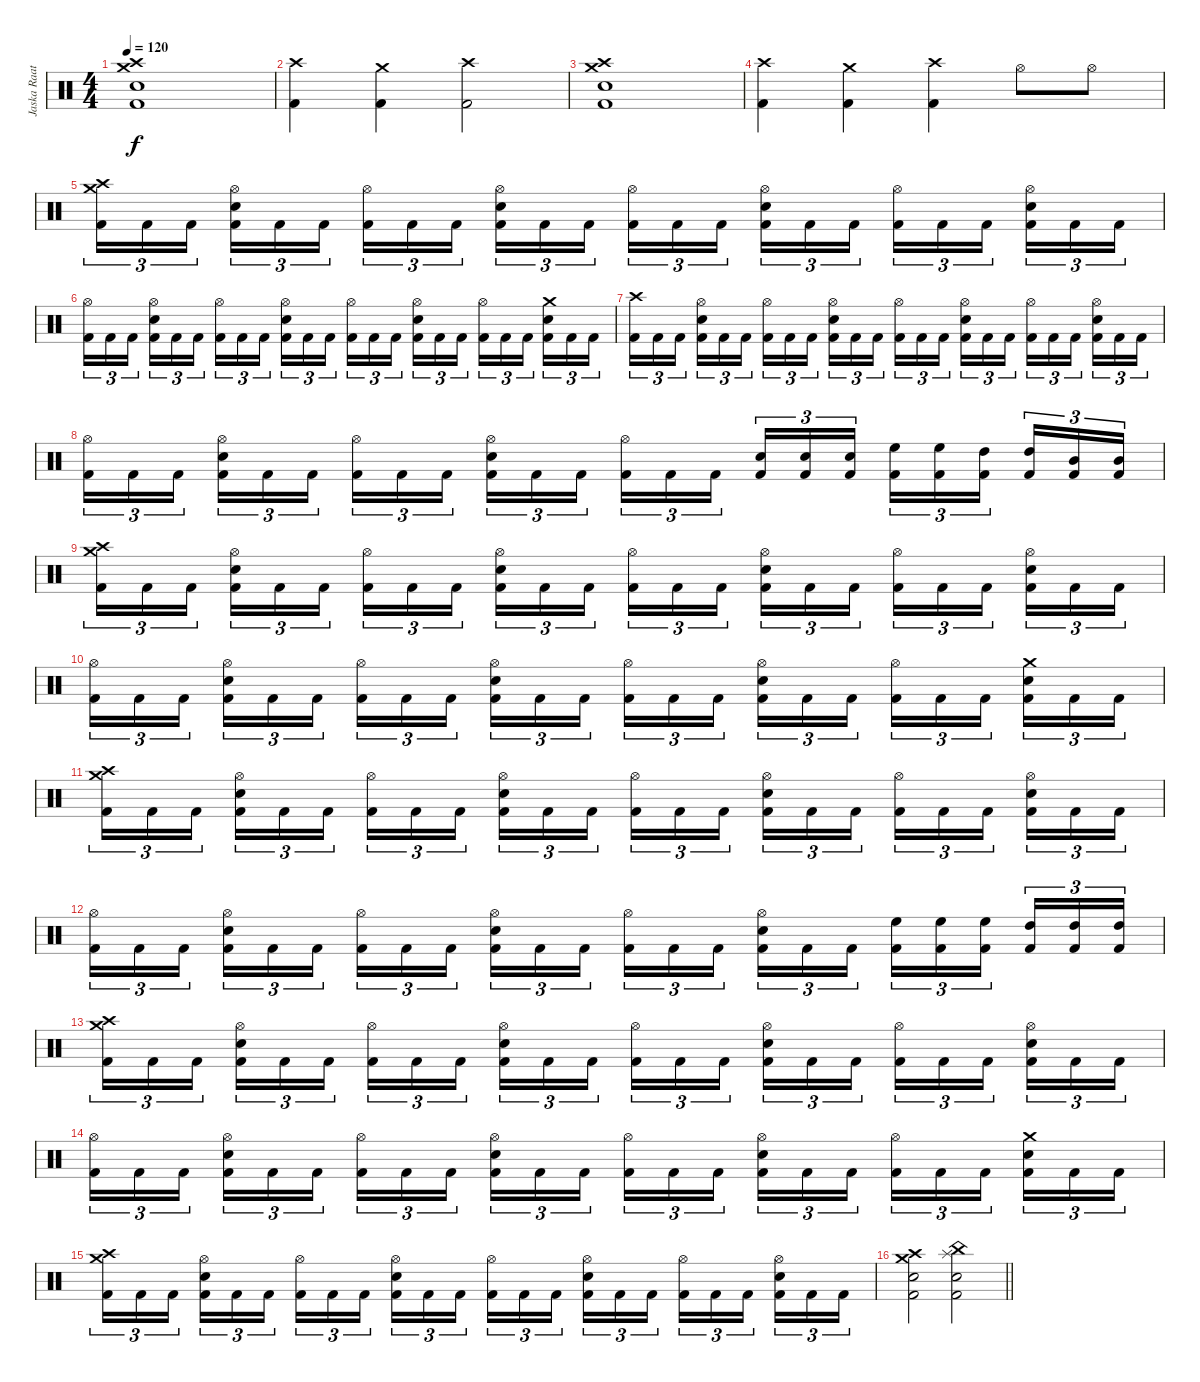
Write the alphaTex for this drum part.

\track ("Jaska Raatikainen" "Jaska Raat") {instrument percussion}
\staff {score}
\articulation defaults
\ts (4 4)
\tempo 120
\clef neutral
\ks c
("Crash high (hit)" "Crash medium (hit)" "Electric Snare (hit)" "Kick (hit) 2").1{dy f} |
("Crash high (hit)" "Kick (hit) 2").4 ("Crash medium (hit)" "Kick (hit) 2").4 ("Crash high (hit)" "Kick (hit) 2").2 |
("Crash high (hit)" "Crash medium (hit)" "Electric Snare (hit)" "Kick (hit) 2").1 |
("Crash high (hit)" "Kick (hit) 2").4 ("Crash medium (hit)" "Kick (hit) 2").4 ("Crash high (hit)" "Kick (hit) 2").4 "Hi-Hat (open)".8 "Hi-Hat (open)".8 |
("Crash high (hit)" "Crash medium (hit)" "Kick (hit) 2").16{tu (3 2)} "Kick (hit) 2".16{tu (3 2)} "Kick (hit) 2".16{tu (3 2)} ("Hi-Hat (open)" "Electric Snare (hit)" "Kick (hit) 2").16{tu (3 2)} "Kick (hit) 2".16{tu (3 2)} "Kick (hit) 2".16{tu (3 2)} ("Hi-Hat (open)" "Kick (hit) 2").16{tu (3 2)} "Kick (hit) 2".16{tu (3 2)} "Kick (hit) 2".16{tu (3 2)} ("Hi-Hat (open)" "Electric Snare (hit)" "Kick (hit) 2").16{tu (3 2)} "Kick (hit) 2".16{tu (3 2)} "Kick (hit) 2".16{tu (3 2)} ("Hi-Hat (open)" "Kick (hit) 2").16{tu (3 2)} "Kick (hit) 2".16{tu (3 2)} "Kick (hit) 2".16{tu (3 2)} ("Hi-Hat (open)" "Electric Snare (hit)" "Kick (hit) 2").16{tu (3 2)} "Kick (hit) 2".16{tu (3 2)} "Kick (hit) 2".16{tu (3 2)} ("Hi-Hat (open)" "Kick (hit) 2").16{tu (3 2)} "Kick (hit) 2".16{tu (3 2)} "Kick (hit) 2".16{tu (3 2)} ("Hi-Hat (open)" "Electric Snare (hit)" "Kick (hit) 2").16{tu (3 2)} "Kick (hit) 2".16{tu (3 2)} "Kick (hit) 2".16{tu (3 2)} |
("Hi-Hat (open)" "Kick (hit) 2").16{tu (3 2)} "Kick (hit) 2".16{tu (3 2)} "Kick (hit) 2".16{tu (3 2)} ("Hi-Hat (open)" "Electric Snare (hit)" "Kick (hit) 2").16{tu (3 2)} "Kick (hit) 2".16{tu (3 2)} "Kick (hit) 2".16{tu (3 2)} ("Hi-Hat (open)" "Kick (hit) 2").16{tu (3 2)} "Kick (hit) 2".16{tu (3 2)} "Kick (hit) 2".16{tu (3 2)} ("Hi-Hat (open)" "Electric Snare (hit)" "Kick (hit) 2").16{tu (3 2)} "Kick (hit) 2".16{tu (3 2)} "Kick (hit) 2".16{tu (3 2)} ("Hi-Hat (open)" "Kick (hit) 2").16{tu (3 2)} "Kick (hit) 2".16{tu (3 2)} "Kick (hit) 2".16{tu (3 2)} ("Hi-Hat (open)" "Electric Snare (hit)" "Kick (hit) 2").16{tu (3 2)} "Kick (hit) 2".16{tu (3 2)} "Kick (hit) 2".16{tu (3 2)} ("Hi-Hat (open)" "Kick (hit) 2").16{tu (3 2)} "Kick (hit) 2".16{tu (3 2)} "Kick (hit) 2".16{tu (3 2)} ("Crash medium (hit)" "Electric Snare (hit)" "Kick (hit) 2").16{tu (3 2)} "Kick (hit) 2".16{tu (3 2)} "Kick (hit) 2".16{tu (3 2)} |
("Crash high (hit)" "Kick (hit) 2").16{tu (3 2)} "Kick (hit) 2".16{tu (3 2)} "Kick (hit) 2".16{tu (3 2)} ("Hi-Hat (open)" "Electric Snare (hit)" "Kick (hit) 2").16{tu (3 2)} "Kick (hit) 2".16{tu (3 2)} "Kick (hit) 2".16{tu (3 2)} ("Hi-Hat (open)" "Kick (hit) 2").16{tu (3 2)} "Kick (hit) 2".16{tu (3 2)} "Kick (hit) 2".16{tu (3 2)} ("Hi-Hat (open)" "Electric Snare (hit)" "Kick (hit) 2").16{tu (3 2)} "Kick (hit) 2".16{tu (3 2)} "Kick (hit) 2".16{tu (3 2)} ("Hi-Hat (open)" "Kick (hit) 2").16{tu (3 2)} "Kick (hit) 2".16{tu (3 2)} "Kick (hit) 2".16{tu (3 2)} ("Hi-Hat (open)" "Electric Snare (hit)" "Kick (hit) 2").16{tu (3 2)} "Kick (hit) 2".16{tu (3 2)} "Kick (hit) 2".16{tu (3 2)} ("Hi-Hat (open)" "Kick (hit) 2").16{tu (3 2)} "Kick (hit) 2".16{tu (3 2)} "Kick (hit) 2".16{tu (3 2)} ("Hi-Hat (open)" "Electric Snare (hit)" "Kick (hit) 2").16{tu (3 2)} "Kick (hit) 2".16{tu (3 2)} "Kick (hit) 2".16{tu (3 2)} |
("Hi-Hat (open)" "Kick (hit) 2").16{tu (3 2)} "Kick (hit) 2".16{tu (3 2)} "Kick (hit) 2".16{tu (3 2)} ("Hi-Hat (open)" "Electric Snare (hit)" "Kick (hit) 2").16{tu (3 2)} "Kick (hit) 2".16{tu (3 2)} "Kick (hit) 2".16{tu (3 2)} ("Hi-Hat (open)" "Kick (hit) 2").16{tu (3 2)} "Kick (hit) 2".16{tu (3 2)} "Kick (hit) 2".16{tu (3 2)} ("Hi-Hat (open)" "Electric Snare (hit)" "Kick (hit) 2").16{tu (3 2)} "Kick (hit) 2".16{tu (3 2)} "Kick (hit) 2".16{tu (3 2)} ("Hi-Hat (open)" "Kick (hit) 2").16{tu (3 2)} "Kick (hit) 2".16{tu (3 2)} "Kick (hit) 2".16{tu (3 2)} ("Electric Snare (hit)" "Kick (hit) 2").16{tu (3 2)} ("Electric Snare (hit)" "Kick (hit) 2").16{tu (3 2)} ("Electric Snare (hit)" "Kick (hit) 2").16{tu (3 2)} ("High Floor Tom (hit)" "Kick (hit) 2").16{tu (3 2)} ("High Floor Tom (hit)" "Kick (hit) 2").16{tu (3 2)} ("High Tom (hit)" "Kick (hit) 2").16{tu (3 2)} ("High Tom (hit)" "Kick (hit) 2").16{tu (3 2)} ("Mid Tom (hit)" "Kick (hit) 2").16{tu (3 2)} ("Mid Tom (hit)" "Kick (hit) 2").16{tu (3 2)} |
("Crash high (hit)" "Crash medium (hit)" "Kick (hit) 2").16{tu (3 2)} "Kick (hit) 2".16{tu (3 2)} "Kick (hit) 2".16{tu (3 2)} ("Hi-Hat (open)" "Electric Snare (hit)" "Kick (hit) 2").16{tu (3 2)} "Kick (hit) 2".16{tu (3 2)} "Kick (hit) 2".16{tu (3 2)} ("Hi-Hat (open)" "Kick (hit) 2").16{tu (3 2)} "Kick (hit) 2".16{tu (3 2)} "Kick (hit) 2".16{tu (3 2)} ("Hi-Hat (open)" "Electric Snare (hit)" "Kick (hit) 2").16{tu (3 2)} "Kick (hit) 2".16{tu (3 2)} "Kick (hit) 2".16{tu (3 2)} ("Hi-Hat (open)" "Kick (hit) 2").16{tu (3 2)} "Kick (hit) 2".16{tu (3 2)} "Kick (hit) 2".16{tu (3 2)} ("Hi-Hat (open)" "Electric Snare (hit)" "Kick (hit) 2").16{tu (3 2)} "Kick (hit) 2".16{tu (3 2)} "Kick (hit) 2".16{tu (3 2)} ("Hi-Hat (open)" "Kick (hit) 2").16{tu (3 2)} "Kick (hit) 2".16{tu (3 2)} "Kick (hit) 2".16{tu (3 2)} ("Hi-Hat (open)" "Electric Snare (hit)" "Kick (hit) 2").16{tu (3 2)} "Kick (hit) 2".16{tu (3 2)} "Kick (hit) 2".16{tu (3 2)} |
("Hi-Hat (open)" "Kick (hit) 2").16{tu (3 2)} "Kick (hit) 2".16{tu (3 2)} "Kick (hit) 2".16{tu (3 2)} ("Hi-Hat (open)" "Electric Snare (hit)" "Kick (hit) 2").16{tu (3 2)} "Kick (hit) 2".16{tu (3 2)} "Kick (hit) 2".16{tu (3 2)} ("Hi-Hat (open)" "Kick (hit) 2").16{tu (3 2)} "Kick (hit) 2".16{tu (3 2)} "Kick (hit) 2".16{tu (3 2)} ("Hi-Hat (open)" "Electric Snare (hit)" "Kick (hit) 2").16{tu (3 2)} "Kick (hit) 2".16{tu (3 2)} "Kick (hit) 2".16{tu (3 2)} ("Hi-Hat (open)" "Kick (hit) 2").16{tu (3 2)} "Kick (hit) 2".16{tu (3 2)} "Kick (hit) 2".16{tu (3 2)} ("Hi-Hat (open)" "Electric Snare (hit)" "Kick (hit) 2").16{tu (3 2)} "Kick (hit) 2".16{tu (3 2)} "Kick (hit) 2".16{tu (3 2)} ("Hi-Hat (open)" "Kick (hit) 2").16{tu (3 2)} "Kick (hit) 2".16{tu (3 2)} "Kick (hit) 2".16{tu (3 2)} ("Crash medium (hit)" "Electric Snare (hit)" "Kick (hit) 2").16{tu (3 2)} "Kick (hit) 2".16{tu (3 2)} "Kick (hit) 2".16{tu (3 2)} |
("Crash high (hit)" "Crash medium (hit)" "Kick (hit) 2").16{tu (3 2)} "Kick (hit) 2".16{tu (3 2)} "Kick (hit) 2".16{tu (3 2)} ("Hi-Hat (open)" "Electric Snare (hit)" "Kick (hit) 2").16{tu (3 2)} "Kick (hit) 2".16{tu (3 2)} "Kick (hit) 2".16{tu (3 2)} ("Hi-Hat (open)" "Kick (hit) 2").16{tu (3 2)} "Kick (hit) 2".16{tu (3 2)} "Kick (hit) 2".16{tu (3 2)} ("Hi-Hat (open)" "Electric Snare (hit)" "Kick (hit) 2").16{tu (3 2)} "Kick (hit) 2".16{tu (3 2)} "Kick (hit) 2".16{tu (3 2)} ("Hi-Hat (open)" "Kick (hit) 2").16{tu (3 2)} "Kick (hit) 2".16{tu (3 2)} "Kick (hit) 2".16{tu (3 2)} ("Hi-Hat (open)" "Electric Snare (hit)" "Kick (hit) 2").16{tu (3 2)} "Kick (hit) 2".16{tu (3 2)} "Kick (hit) 2".16{tu (3 2)} ("Hi-Hat (open)" "Kick (hit) 2").16{tu (3 2)} "Kick (hit) 2".16{tu (3 2)} "Kick (hit) 2".16{tu (3 2)} ("Hi-Hat (open)" "Electric Snare (hit)" "Kick (hit) 2").16{tu (3 2)} "Kick (hit) 2".16{tu (3 2)} "Kick (hit) 2".16{tu (3 2)} |
("Hi-Hat (open)" "Kick (hit) 2").16{tu (3 2)} "Kick (hit) 2".16{tu (3 2)} "Kick (hit) 2".16{tu (3 2)} ("Hi-Hat (open)" "Electric Snare (hit)" "Kick (hit) 2").16{tu (3 2)} "Kick (hit) 2".16{tu (3 2)} "Kick (hit) 2".16{tu (3 2)} ("Hi-Hat (open)" "Kick (hit) 2").16{tu (3 2)} "Kick (hit) 2".16{tu (3 2)} "Kick (hit) 2".16{tu (3 2)} ("Hi-Hat (open)" "Electric Snare (hit)" "Kick (hit) 2").16{tu (3 2)} "Kick (hit) 2".16{tu (3 2)} "Kick (hit) 2".16{tu (3 2)} ("Hi-Hat (open)" "Kick (hit) 2").16{tu (3 2)} "Kick (hit) 2".16{tu (3 2)} "Kick (hit) 2".16{tu (3 2)} ("Hi-Hat (open)" "Electric Snare (hit)" "Kick (hit) 2").16{tu (3 2)} "Kick (hit) 2".16{tu (3 2)} "Kick (hit) 2".16{tu (3 2)} ("High Floor Tom (hit)" "Kick (hit) 2").16{tu (3 2)} ("High Floor Tom (hit)" "Kick (hit) 2").16{tu (3 2)} ("High Floor Tom (hit)" "Kick (hit) 2").16{tu (3 2)} ("High Tom (hit)" "Kick (hit) 2").16{tu (3 2)} ("High Tom (hit)" "Kick (hit) 2").16{tu (3 2)} ("High Tom (hit)" "Kick (hit) 2").16{tu (3 2)} |
("Crash high (hit)" "Crash medium (hit)" "Kick (hit) 2").16{tu (3 2)} "Kick (hit) 2".16{tu (3 2)} "Kick (hit) 2".16{tu (3 2)} ("Hi-Hat (open)" "Electric Snare (hit)" "Kick (hit) 2").16{tu (3 2)} "Kick (hit) 2".16{tu (3 2)} "Kick (hit) 2".16{tu (3 2)} ("Hi-Hat (open)" "Kick (hit) 2").16{tu (3 2)} "Kick (hit) 2".16{tu (3 2)} "Kick (hit) 2".16{tu (3 2)} ("Hi-Hat (open)" "Electric Snare (hit)" "Kick (hit) 2").16{tu (3 2)} "Kick (hit) 2".16{tu (3 2)} "Kick (hit) 2".16{tu (3 2)} ("Hi-Hat (open)" "Kick (hit) 2").16{tu (3 2)} "Kick (hit) 2".16{tu (3 2)} "Kick (hit) 2".16{tu (3 2)} ("Hi-Hat (open)" "Electric Snare (hit)" "Kick (hit) 2").16{tu (3 2)} "Kick (hit) 2".16{tu (3 2)} "Kick (hit) 2".16{tu (3 2)} ("Hi-Hat (open)" "Kick (hit) 2").16{tu (3 2)} "Kick (hit) 2".16{tu (3 2)} "Kick (hit) 2".16{tu (3 2)} ("Hi-Hat (open)" "Electric Snare (hit)" "Kick (hit) 2").16{tu (3 2)} "Kick (hit) 2".16{tu (3 2)} "Kick (hit) 2".16{tu (3 2)} |
("Hi-Hat (open)" "Kick (hit) 2").16{tu (3 2)} "Kick (hit) 2".16{tu (3 2)} "Kick (hit) 2".16{tu (3 2)} ("Hi-Hat (open)" "Electric Snare (hit)" "Kick (hit) 2").16{tu (3 2)} "Kick (hit) 2".16{tu (3 2)} "Kick (hit) 2".16{tu (3 2)} ("Hi-Hat (open)" "Kick (hit) 2").16{tu (3 2)} "Kick (hit) 2".16{tu (3 2)} "Kick (hit) 2".16{tu (3 2)} ("Hi-Hat (open)" "Electric Snare (hit)" "Kick (hit) 2").16{tu (3 2)} "Kick (hit) 2".16{tu (3 2)} "Kick (hit) 2".16{tu (3 2)} ("Hi-Hat (open)" "Kick (hit) 2").16{tu (3 2)} "Kick (hit) 2".16{tu (3 2)} "Kick (hit) 2".16{tu (3 2)} ("Hi-Hat (open)" "Electric Snare (hit)" "Kick (hit) 2").16{tu (3 2)} "Kick (hit) 2".16{tu (3 2)} "Kick (hit) 2".16{tu (3 2)} ("Hi-Hat (open)" "Kick (hit) 2").16{tu (3 2)} "Kick (hit) 2".16{tu (3 2)} "Kick (hit) 2".16{tu (3 2)} ("Crash medium (hit)" "Electric Snare (hit)" "Kick (hit) 2").16{tu (3 2)} "Kick (hit) 2".16{tu (3 2)} "Kick (hit) 2".16{tu (3 2)} |
("Crash high (hit)" "Crash medium (hit)" "Kick (hit) 2").16{tu (3 2)} "Kick (hit) 2".16{tu (3 2)} "Kick (hit) 2".16{tu (3 2)} ("Hi-Hat (open)" "Electric Snare (hit)" "Kick (hit) 2").16{tu (3 2)} "Kick (hit) 2".16{tu (3 2)} "Kick (hit) 2".16{tu (3 2)} ("Hi-Hat (open)" "Kick (hit) 2").16{tu (3 2)} "Kick (hit) 2".16{tu (3 2)} "Kick (hit) 2".16{tu (3 2)} ("Hi-Hat (open)" "Electric Snare (hit)" "Kick (hit) 2").16{tu (3 2)} "Kick (hit) 2".16{tu (3 2)} "Kick (hit) 2".16{tu (3 2)} ("Hi-Hat (open)" "Kick (hit) 2").16{tu (3 2)} "Kick (hit) 2".16{tu (3 2)} "Kick (hit) 2".16{tu (3 2)} ("Hi-Hat (open)" "Electric Snare (hit)" "Kick (hit) 2").16{tu (3 2)} "Kick (hit) 2".16{tu (3 2)} "Kick (hit) 2".16{tu (3 2)} ("Hi-Hat (open)" "Kick (hit) 2").16{tu (3 2)} "Kick (hit) 2".16{tu (3 2)} "Kick (hit) 2".16{tu (3 2)} ("Hi-Hat (open)" "Electric Snare (hit)" "Kick (hit) 2").16{tu (3 2)} "Kick (hit) 2".16{tu (3 2)} "Kick (hit) 2".16{tu (3 2)} |
\barLineRight lightlight
("Crash high (hit)" "Crash medium (hit)" "Electric Snare (hit)" "Kick (hit) 2").2 ("Splash (hit)" "China (hit)" "Electric Snare (hit)" "Kick (hit) 2").2
